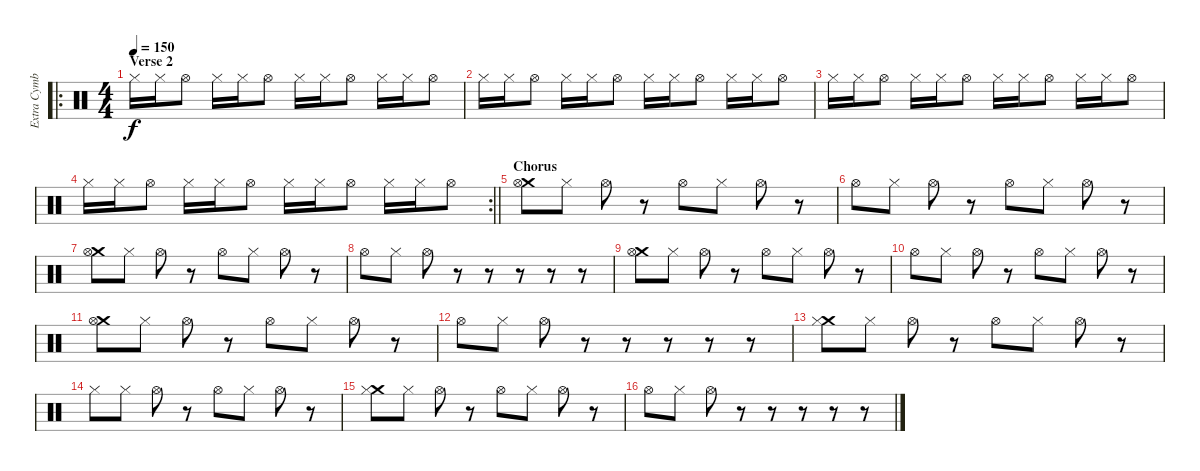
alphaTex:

\track ("Extra Cymbals" "Extra Cymb") {instrument percussion bank 255}
\staff {score}
\articulation defaults
\ro
\ts (4 4)
\section ("" "Verse 2")
\tempo 150
\clef neutral
\ks c "Hi-Hat (closed)".16{dy f} "Hi-Hat (closed)".16 "Hi-Hat (open)".8 "Hi-Hat (closed)".16 "Hi-Hat (closed)".16 "Hi-Hat (open)".8 "Hi-Hat (closed)".16 "Hi-Hat (closed)".16 "Hi-Hat (open)".8 "Hi-Hat (closed)".16 "Hi-Hat (closed)".16 "Hi-Hat (open)".8
|
"Hi-Hat (closed)".16 "Hi-Hat (closed)".16 "Hi-Hat (open)".8 "Hi-Hat (closed)".16 "Hi-Hat (closed)".16 "Hi-Hat (open)".8 "Hi-Hat (closed)".16 "Hi-Hat (closed)".16 "Hi-Hat (open)".8 "Hi-Hat (closed)".16 "Hi-Hat (closed)".16 "Hi-Hat (open)".8 |
"Hi-Hat (closed)".16 "Hi-Hat (closed)".16 "Hi-Hat (open)".8 "Hi-Hat (closed)".16 "Hi-Hat (closed)".16 "Hi-Hat (open)".8 "Hi-Hat (closed)".16 "Hi-Hat (closed)".16 "Hi-Hat (open)".8 "Hi-Hat (closed)".16 "Hi-Hat (closed)".16 "Hi-Hat (open)".8 |
\rc 2
\barLineRight lightlight "Hi-Hat (closed)".16 "Hi-Hat (closed)".16 "Hi-Hat (open)".8 "Hi-Hat (closed)".16 "Hi-Hat (closed)".16 "Hi-Hat (open)".8 "Hi-Hat (closed)".16 "Hi-Hat (closed)".16 "Hi-Hat (open)".8 "Hi-Hat (closed)".16 "Hi-Hat (closed)".16 "Hi-Hat (open)".8
|
\section ("" "Chorus")
("Crash medium (hit)" "Hi-Hat (open)").8 "Hi-Hat (closed)".8 "Hi-Hat (open)".8 r.8 "Hi-Hat (open)".8 "Hi-Hat (closed)".8 "Hi-Hat (open)".8 r.8 |
"Hi-Hat (open)".8 "Hi-Hat (closed)".8 "Hi-Hat (open)".8 r.8 "Hi-Hat (open)".8 "Hi-Hat (closed)".8 "Hi-Hat (open)".8 r.8 |
("Crash medium (hit)" "Hi-Hat (open)").8 "Hi-Hat (closed)".8 "Hi-Hat (open)".8 r.8 "Hi-Hat (open)".8 "Hi-Hat (closed)".8 "Hi-Hat (open)".8 r.8 |
"Hi-Hat (open)".8 "Hi-Hat (closed)".8 "Hi-Hat (open)".8 r.8 r.8 r.8 r.8 r.8 |
("Crash medium (hit)" "Hi-Hat (open)").8 "Hi-Hat (closed)".8 "Hi-Hat (open)".8 r.8 "Hi-Hat (open)".8 "Hi-Hat (closed)".8 "Hi-Hat (open)".8 r.8 |
"Hi-Hat (open)".8 "Hi-Hat (closed)".8 "Hi-Hat (open)".8 r.8 "Hi-Hat (open)".8 "Hi-Hat (closed)".8 "Hi-Hat (open)".8 r.8 |
("Crash medium (hit)" "Hi-Hat (open)").8 "Hi-Hat (closed)".8 "Hi-Hat (open)".8 r.8 "Hi-Hat (open)".8 "Hi-Hat (closed)".8 "Hi-Hat (open)".8 r.8 |
"Hi-Hat (open)".8 "Hi-Hat (closed)".8 "Hi-Hat (open)".8 r.8 r.8 r.8 r.8 r.8 |
("Crash medium (hit)" "Hi-Hat (closed)").8 "Hi-Hat (closed)".8 "Hi-Hat (open)".8 r.8 "Hi-Hat (open)".8 "Hi-Hat (closed)".8 "Hi-Hat (open)".8 r.8 |
"Hi-Hat (closed)".8 "Hi-Hat (closed)".8 "Hi-Hat (open)".8 r.8 "Hi-Hat (open)".8 "Hi-Hat (closed)".8 "Hi-Hat (open)".8 r.8 |
("Crash medium (hit)" "Hi-Hat (closed)").8 "Hi-Hat (closed)".8 "Hi-Hat (open)".8 r.8 "Hi-Hat (open)".8 "Hi-Hat (closed)".8 "Hi-Hat (open)".8 r.8 |
"Hi-Hat (open)".8 "Hi-Hat (closed)".8 "Hi-Hat (open)".8 r.8 r.8 r.8 r.8 r.8
